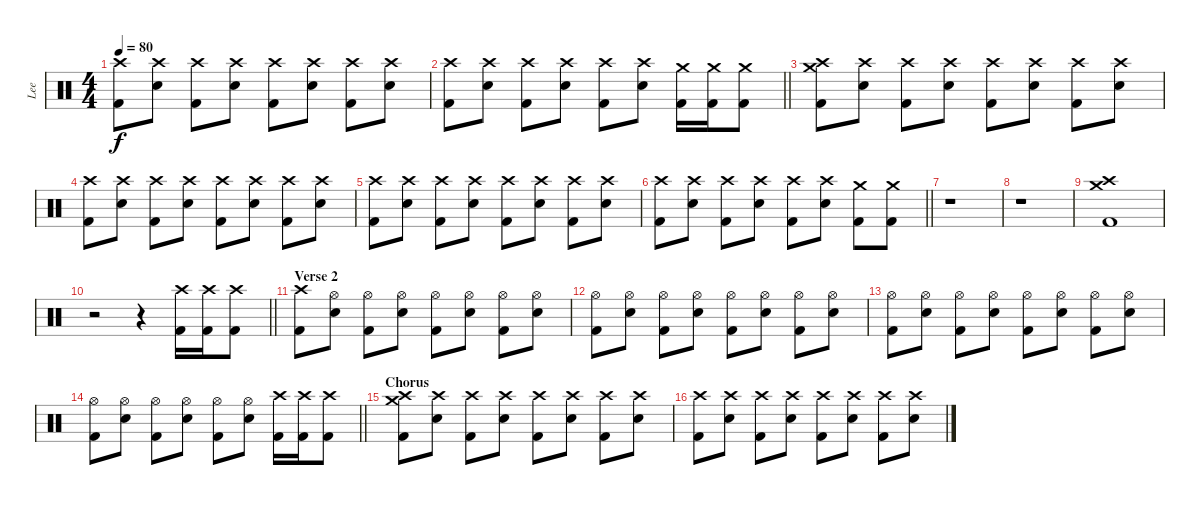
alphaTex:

\track ("Lee" "Lee") {instrument percussion}
\staff {score}
\articulation defaults
\ts (4 4)
\tempo 80
\clef neutral
\ks c
("Crash high (hit)" "Kick (hit) 2").8{dy f} ("Crash high (hit)" "Electric Snare (hit)").8 ("Crash high (hit)" "Kick (hit) 2").8 ("Crash high (hit)" "Electric Snare (hit)").8 ("Crash high (hit)" "Kick (hit) 2").8 ("Crash high (hit)" "Electric Snare (hit)").8 ("Crash high (hit)" "Kick (hit) 2").8 ("Crash high (hit)" "Electric Snare (hit)").8 |
\barLineRight lightlight
("Crash high (hit)" "Kick (hit) 2").8 ("Crash high (hit)" "Electric Snare (hit)").8 ("Crash high (hit)" "Kick (hit) 2").8 ("Crash high (hit)" "Electric Snare (hit)").8 ("Crash high (hit)" "Kick (hit) 2").8 ("Crash high (hit)" "Electric Snare (hit)").8 ("Crash medium (hit)" "Kick (hit) 2").16 ("Crash medium (hit)" "Kick (hit) 2").16 ("Crash medium (hit)" "Kick (hit) 2").8 |
("Crash high (hit)" "Crash medium (hit)" "Kick (hit) 2").8 ("Crash high (hit)" "Electric Snare (hit)").8 ("Crash high (hit)" "Kick (hit) 2").8 ("Crash high (hit)" "Electric Snare (hit)").8 ("Crash high (hit)" "Kick (hit) 2").8 ("Crash high (hit)" "Electric Snare (hit)").8 ("Crash high (hit)" "Kick (hit) 2").8 ("Crash high (hit)" "Electric Snare (hit)").8 |
("Crash high (hit)" "Kick (hit) 2").8 ("Crash high (hit)" "Electric Snare (hit)").8 ("Crash high (hit)" "Kick (hit) 2").8 ("Crash high (hit)" "Electric Snare (hit)").8 ("Crash high (hit)" "Kick (hit) 2").8 ("Crash high (hit)" "Electric Snare (hit)").8 ("Crash high (hit)" "Kick (hit) 2").8 ("Crash high (hit)" "Electric Snare (hit)").8 |
("Crash high (hit)" "Kick (hit) 2").8 ("Crash high (hit)" "Electric Snare (hit)").8 ("Crash high (hit)" "Kick (hit) 2").8 ("Crash high (hit)" "Electric Snare (hit)").8 ("Crash high (hit)" "Kick (hit) 2").8 ("Crash high (hit)" "Electric Snare (hit)").8 ("Crash high (hit)" "Kick (hit) 2").8 ("Crash high (hit)" "Electric Snare (hit)").8 |
\barLineRight lightlight
("Crash high (hit)" "Kick (hit) 2").8 ("Crash high (hit)" "Electric Snare (hit)").8 ("Crash high (hit)" "Kick (hit) 2").8 ("Crash high (hit)" "Electric Snare (hit)").8 ("Crash high (hit)" "Kick (hit) 2").8 ("Crash high (hit)" "Electric Snare (hit)").8 ("Crash medium (hit)" "Kick (hit) 2").8 ("Crash medium (hit)" "Kick (hit) 2").8 |
r.1 |
r.1 |
("Crash medium (hit)" "Crash high (hit)" "Kick (hit) 2").1 |
\barLineRight lightlight
r.2 r.4 ("Crash high (hit)" "Kick (hit) 2").16 ("Crash high (hit)" "Kick (hit) 2").16 ("Crash high (hit)" "Kick (hit) 2").8 |
\section ("" "Verse 2")
("Crash high (hit)" "Kick (hit) 2").8 ("Hi-Hat (open)" "Electric Snare (hit)").8 ("Hi-Hat (open)" "Kick (hit) 2").8 ("Hi-Hat (open)" "Electric Snare (hit)").8 ("Hi-Hat (open)" "Kick (hit) 2").8 ("Hi-Hat (open)" "Electric Snare (hit)").8 ("Hi-Hat (open)" "Kick (hit) 2").8 ("Hi-Hat (open)" "Electric Snare (hit)").8 |
("Hi-Hat (open)" "Kick (hit) 2").8 ("Hi-Hat (open)" "Electric Snare (hit)").8 ("Hi-Hat (open)" "Kick (hit) 2").8 ("Hi-Hat (open)" "Electric Snare (hit)").8 ("Hi-Hat (open)" "Kick (hit) 2").8 ("Hi-Hat (open)" "Electric Snare (hit)").8 ("Hi-Hat (open)" "Kick (hit) 2").8 ("Hi-Hat (open)" "Electric Snare (hit)").8 |
("Hi-Hat (open)" "Kick (hit) 2").8 ("Hi-Hat (open)" "Electric Snare (hit)").8 ("Hi-Hat (open)" "Kick (hit) 2").8 ("Hi-Hat (open)" "Electric Snare (hit)").8 ("Hi-Hat (open)" "Kick (hit) 2").8 ("Hi-Hat (open)" "Electric Snare (hit)").8 ("Hi-Hat (open)" "Kick (hit) 2").8 ("Hi-Hat (open)" "Electric Snare (hit)").8 |
\barLineRight lightlight
("Hi-Hat (open)" "Kick (hit) 2").8 ("Hi-Hat (open)" "Electric Snare (hit)").8 ("Hi-Hat (open)" "Kick (hit) 2").8 ("Hi-Hat (open)" "Electric Snare (hit)").8 ("Hi-Hat (open)" "Kick (hit) 2").8 ("Hi-Hat (open)" "Electric Snare (hit)").8 ("Crash high (hit)" "Kick (hit) 2").16 ("Crash high (hit)" "Kick (hit) 2").16 ("Crash high (hit)" "Kick (hit) 2").8 |
\section ("" "Chorus")
("Crash medium (hit)" "Crash high (hit)" "Kick (hit) 2").8 ("Crash high (hit)" "Electric Snare (hit)").8 ("Crash high (hit)" "Kick (hit) 2").8 ("Crash high (hit)" "Electric Snare (hit)").8 ("Crash high (hit)" "Kick (hit) 2").8 ("Crash high (hit)" "Electric Snare (hit)").8 ("Crash high (hit)" "Kick (hit) 2").8 ("Crash high (hit)" "Electric Snare (hit)").8 |
("Crash high (hit)" "Kick (hit) 2").8 ("Crash high (hit)" "Electric Snare (hit)").8 ("Crash high (hit)" "Kick (hit) 2").8 ("Crash high (hit)" "Electric Snare (hit)").8 ("Crash high (hit)" "Kick (hit) 2").8 ("Crash high (hit)" "Electric Snare (hit)").8 ("Crash high (hit)" "Kick (hit) 2").8 ("Crash high (hit)" "Electric Snare (hit)").8
